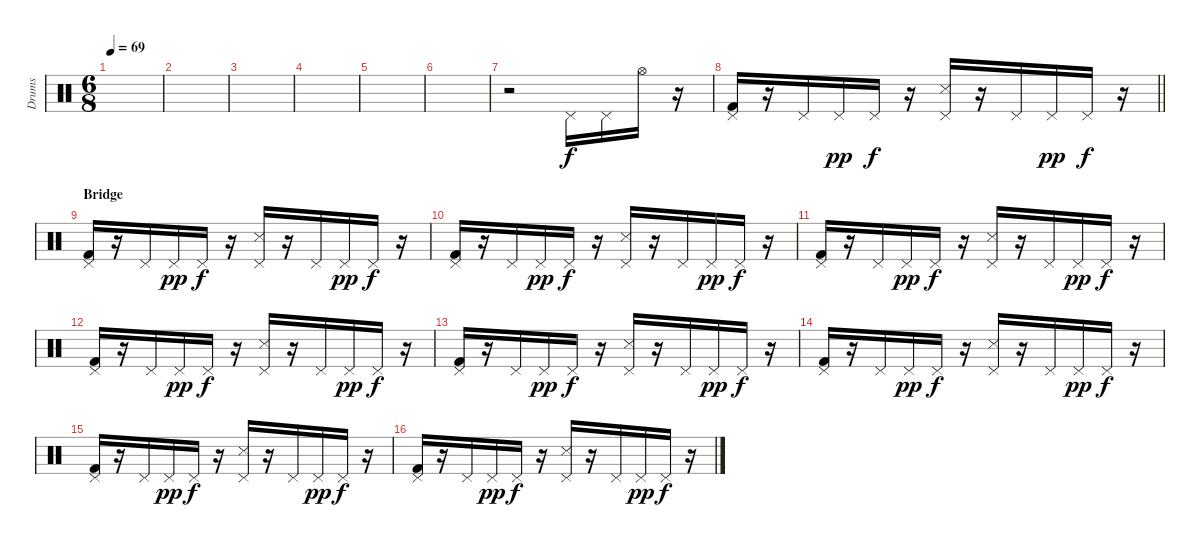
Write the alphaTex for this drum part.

\track ("Drums" "Drums") {instrument percussion}
\staff {score}
\articulation defaults
\ts (6 8)
\tempo 69
\clef neutral
\ks c
|
|
|
|
|
|
r.2 "Pedal Hi-Hat (hit)".16 "Pedal Hi-Hat (hit)".16{dy f} "Hi-Hat (open)".16 r.16 |
\barLineRight lightlight
("Pedal Hi-Hat (hit)" "Kick (hit) 2").16 r.16 "Pedal Hi-Hat (hit)".16 "Pedal Hi-Hat (hit)".16{dy pp} "Pedal Hi-Hat (hit)".16{dy f} r.16 ("Pedal Hi-Hat (hit)" "Snare (side stick) 3").16 r.16 "Pedal Hi-Hat (hit)".16 "Pedal Hi-Hat (hit)".16{dy pp} "Pedal Hi-Hat (hit)".16{dy f} r.16 |
\section ("" "Bridge")
("Kick (hit) 2" "Pedal Hi-Hat (hit)").16 r.16 "Pedal Hi-Hat (hit)".16 "Pedal Hi-Hat (hit)".16{dy pp} "Pedal Hi-Hat (hit)".16{dy f} r.16 ("Pedal Hi-Hat (hit)" "Snare (side stick) 3").16 r.16 "Pedal Hi-Hat (hit)".16 "Pedal Hi-Hat (hit)".16{dy pp} "Pedal Hi-Hat (hit)".16{dy f} r.16 |
("Pedal Hi-Hat (hit)" "Kick (hit) 2").16 r.16 "Pedal Hi-Hat (hit)".16 "Pedal Hi-Hat (hit)".16{dy pp} "Pedal Hi-Hat (hit)".16{dy f} r.16 ("Pedal Hi-Hat (hit)" "Snare (side stick) 3").16 r.16 "Pedal Hi-Hat (hit)".16 "Pedal Hi-Hat (hit)".16{dy pp} "Pedal Hi-Hat (hit)".16{dy f} r.16 |
("Kick (hit) 2" "Pedal Hi-Hat (hit)").16 r.16 "Pedal Hi-Hat (hit)".16 "Pedal Hi-Hat (hit)".16{dy pp} "Pedal Hi-Hat (hit)".16{dy f} r.16 ("Pedal Hi-Hat (hit)" "Snare (side stick) 3").16 r.16 "Pedal Hi-Hat (hit)".16 "Pedal Hi-Hat (hit)".16{dy pp} "Pedal Hi-Hat (hit)".16{dy f} r.16 |
("Pedal Hi-Hat (hit)" "Kick (hit) 2").16 r.16 "Pedal Hi-Hat (hit)".16 "Pedal Hi-Hat (hit)".16{dy pp} "Pedal Hi-Hat (hit)".16{dy f} r.16 ("Pedal Hi-Hat (hit)" "Snare (side stick) 3").16 r.16 "Pedal Hi-Hat (hit)".16 "Pedal Hi-Hat (hit)".16{dy pp} "Pedal Hi-Hat (hit)".16{dy f} r.16 |
("Kick (hit) 2" "Pedal Hi-Hat (hit)").16 r.16 "Pedal Hi-Hat (hit)".16 "Pedal Hi-Hat (hit)".16{dy pp} "Pedal Hi-Hat (hit)".16{dy f} r.16 ("Pedal Hi-Hat (hit)" "Snare (side stick) 3").16 r.16 "Pedal Hi-Hat (hit)".16 "Pedal Hi-Hat (hit)".16{dy pp} "Pedal Hi-Hat (hit)".16{dy f} r.16 |
("Pedal Hi-Hat (hit)" "Kick (hit) 2").16 r.16 "Pedal Hi-Hat (hit)".16 "Pedal Hi-Hat (hit)".16{dy pp} "Pedal Hi-Hat (hit)".16{dy f} r.16 ("Pedal Hi-Hat (hit)" "Snare (side stick) 3").16 r.16 "Pedal Hi-Hat (hit)".16 "Pedal Hi-Hat (hit)".16{dy pp} "Pedal Hi-Hat (hit)".16{dy f} r.16 |
("Kick (hit) 2" "Pedal Hi-Hat (hit)").16 r.16 "Pedal Hi-Hat (hit)".16 "Pedal Hi-Hat (hit)".16{dy pp} "Pedal Hi-Hat (hit)".16{dy f} r.16 ("Pedal Hi-Hat (hit)" "Snare (side stick) 3").16 r.16 "Pedal Hi-Hat (hit)".16 "Pedal Hi-Hat (hit)".16{dy pp} "Pedal Hi-Hat (hit)".16{dy f} r.16 |
("Kick (hit) 2" "Pedal Hi-Hat (hit)").16 r.16 "Pedal Hi-Hat (hit)".16 "Pedal Hi-Hat (hit)".16{dy pp} "Pedal Hi-Hat (hit)".16{dy f} r.16 ("Pedal Hi-Hat (hit)" "Snare (side stick) 3").16 r.16 "Pedal Hi-Hat (hit)".16 "Pedal Hi-Hat (hit)".16{dy pp} "Pedal Hi-Hat (hit)".16{dy f} r.16
